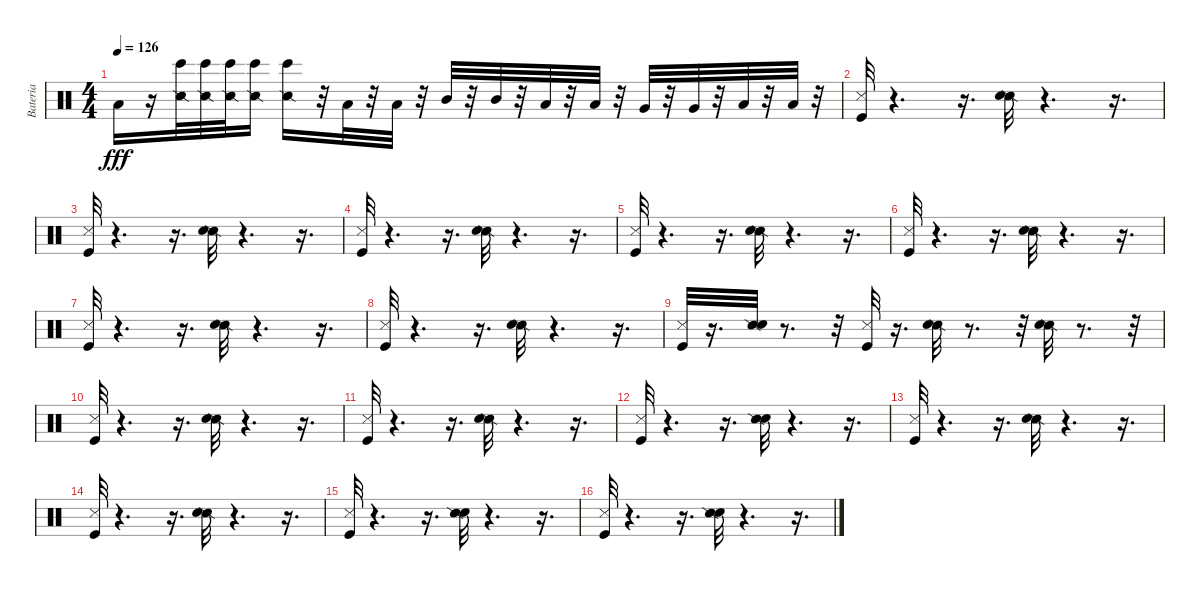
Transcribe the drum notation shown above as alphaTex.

\track ("Bateria" "Bateria") {instrument percussion}
\staff {score}
\articulation defaults
\ts (4 4)
\tempo 126
\clef neutral
\ks c "Low Tom (hit)".16{dy fff}
r.16 ("Bongo High (hit)" "Snare (side stick) 2").32 ("Bongo High (hit)" "Snare (side stick) 2").32 ("Bongo High (hit)" "Snare (side stick) 2").32 ("Bongo High (hit)" "Snare (side stick) 2").16 ("Bongo High (hit)" "Snare (side stick) 2").16 r.32 "Low Tom (hit)".32 r.32 "Low Tom (hit)".32 r.32 "Mid Tom (hit)".32 r.32 "Mid Tom (hit)".32 r.32 "Low Tom (hit)".32 r.32 "Low Tom (hit)".32 r.32 "Very Low Tom (hit)".32 r.32 "Very Low Tom (hit)".32 r.32 "Low Floor Tom (hit)".32 r.32 "Low Floor Tom (hit)".32 r.32 |
("Metronome (hit)" "Kick (hit)").32 r.4{d} r.16{d} ("Snare (side stick) 2" "Metronome (bell)").32 r.4{d} r.16{d} |
("Metronome (hit)" "Kick (hit)").32 r.4{d} r.16{d} ("Snare (side stick) 2" "Metronome (bell)").32 r.4{d} r.16{d} |
("Metronome (hit)" "Kick (hit)").32 r.4{d} r.16{d} ("Snare (side stick) 2" "Metronome (bell)").32 r.4{d} r.16{d} |
("Metronome (hit)" "Kick (hit)").32 r.4{d} r.16{d} ("Snare (side stick) 2" "Metronome (bell)").32 r.4{d} r.16{d} |
("Metronome (hit)" "Kick (hit)").32 r.4{d} r.16{d} ("Snare (side stick) 2" "Metronome (bell)").32 r.4{d} r.16{d} |
("Kick (hit)" "Metronome (hit)").32 r.4{d} r.16{d} ("Snare (side stick) 2" "Metronome (bell)").32 r.4{d} r.16{d} |
("Metronome (hit)" "Kick (hit)").32 r.4{d} r.16{d} ("Snare (side stick) 2" "Metronome (bell)").32 r.4{d} r.16{d} |
("Metronome (hit)" "Kick (hit)").32 r.16{d} ("Snare (side stick) 2" "Metronome (bell)").32 r.8{d} r.32 ("Kick (hit)" "Metronome (hit)").32 r.16{d} ("Snare (side stick) 2" "Metronome (bell)").32 r.8{d} r.32 ("Snare (side stick) 2" "Metronome (bell)").32 r.8{d} r.32 |
("Kick (hit)" "Metronome (hit)").32 r.4{d} r.16{d} ("Snare (side stick) 2" "Metronome (bell)").32 r.4{d} r.16{d} |
("Kick (hit)" "Metronome (hit)").32 r.4{d} r.16{d} ("Snare (side stick) 2" "Metronome (bell)").32 r.4{d} r.16{d} |
("Kick (hit)" "Metronome (hit)").32 r.4{d} r.16{d} ("Metronome (bell)" "Snare (side stick) 2").32 r.4{d} r.16{d} |
("Metronome (hit)" "Kick (hit)").32 r.4{d} r.16{d} ("Snare (side stick) 2" "Metronome (bell)").32 r.4{d} r.16{d} |
("Metronome (hit)" "Kick (hit)").32 r.4{d} r.16{d} ("Snare (side stick) 2" "Metronome (bell)").32 r.4{d} r.16{d} |
("Metronome (hit)" "Kick (hit)").32 r.4{d} r.16{d} ("Metronome (bell)" "Snare (side stick) 2").32 r.4{d} r.16{d} |
("Metronome (hit)" "Kick (hit)").32 r.4{d} r.16{d} ("Metronome (bell)" "Snare (side stick) 2").32 r.4{d} r.16{d}
